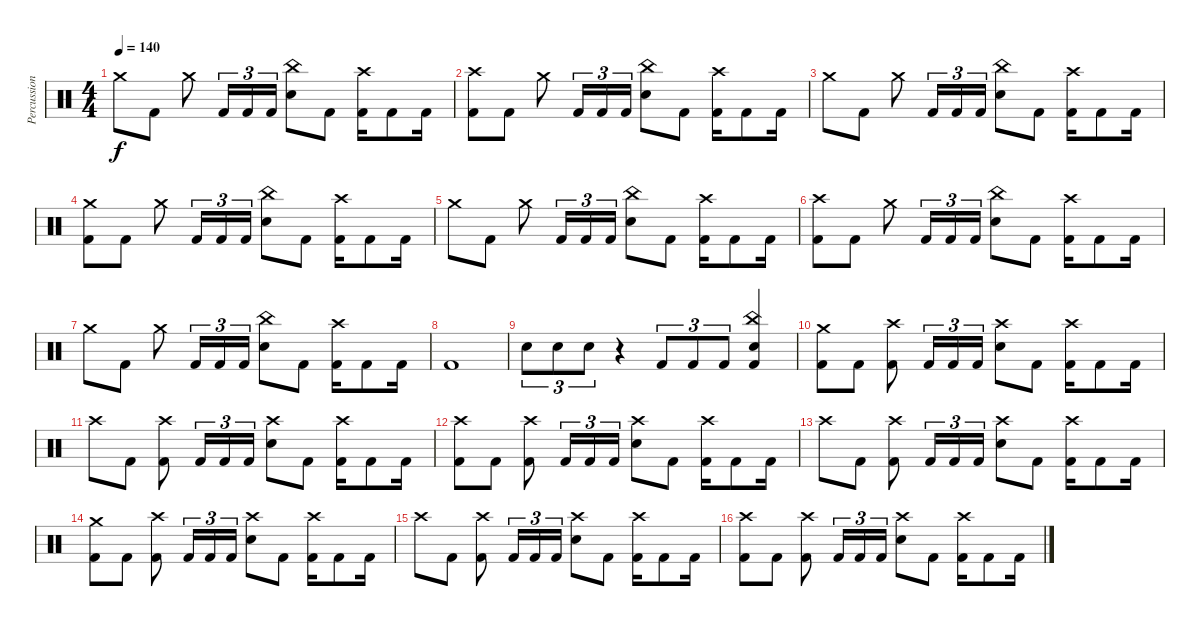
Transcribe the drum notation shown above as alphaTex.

\track ("Percussion" "Percussion") {instrument percussion}
\staff {score}
\articulation defaults
\ts (4 4)
\tempo 140
\clef neutral
\ks c "Crash medium (hit)".8{dy f} "Kick (hit) 2".8 "Crash medium (hit)".8 "Kick (hit) 2".16{tu (3 2)} "Kick (hit) 2".16{tu (3 2)} "Kick (hit) 2".16{tu (3 2)}
("China (hit)" "Electric Snare (hit)").8 "Kick (hit) 2".8 ("Crash high (hit)" "Kick (hit) 2").16 "Kick (hit) 2".8 "Kick (hit) 2".16 |
("Crash high (hit)" "Kick (hit) 2").8 "Kick (hit) 2".8 "Crash medium (hit)".8 "Kick (hit) 2".16{tu (3 2)} "Kick (hit) 2".16{tu (3 2)} "Kick (hit) 2".16{tu (3 2)} ("China (hit)" "Electric Snare (hit)").8 "Kick (hit) 2".8 ("Crash high (hit)" "Kick (hit) 2").16 "Kick (hit) 2".8 "Kick (hit) 2".16 |
"Crash medium (hit)".8 "Kick (hit) 2".8 "Crash medium (hit)".8 "Kick (hit) 2".16{tu (3 2)} "Kick (hit) 2".16{tu (3 2)} "Kick (hit) 2".16{tu (3 2)} ("China (hit)" "Electric Snare (hit)").8 "Kick (hit) 2".8 ("Crash high (hit)" "Kick (hit) 2").16 "Kick (hit) 2".8 "Kick (hit) 2".16 |
("Crash medium (hit)" "Kick (hit) 2").8 "Kick (hit) 2".8 "Crash medium (hit)".8 "Kick (hit) 2".16{tu (3 2)} "Kick (hit) 2".16{tu (3 2)} "Kick (hit) 2".16{tu (3 2)} ("China (hit)" "Electric Snare (hit)").8 "Kick (hit) 2".8 ("Crash high (hit)" "Kick (hit) 2").16 "Kick (hit) 2".8 "Kick (hit) 2".16 |
"Crash medium (hit)".8 "Kick (hit) 2".8 "Crash medium (hit)".8 "Kick (hit) 2".16{tu (3 2)} "Kick (hit) 2".16{tu (3 2)} "Kick (hit) 2".16{tu (3 2)} ("China (hit)" "Electric Snare (hit)").8 "Kick (hit) 2".8 ("Crash high (hit)" "Kick (hit) 2").16 "Kick (hit) 2".8 "Kick (hit) 2".16 |
("Crash high (hit)" "Kick (hit) 2").8 "Kick (hit) 2".8 "Crash medium (hit)".8 "Kick (hit) 2".16{tu (3 2)} "Kick (hit) 2".16{tu (3 2)} "Kick (hit) 2".16{tu (3 2)} ("China (hit)" "Electric Snare (hit)").8 "Kick (hit) 2".8 ("Crash high (hit)" "Kick (hit) 2").16 "Kick (hit) 2".8 "Kick (hit) 2".16 |
"Crash medium (hit)".8 "Kick (hit) 2".8 "Crash medium (hit)".8 "Kick (hit) 2".16{tu (3 2)} "Kick (hit) 2".16{tu (3 2)} "Kick (hit) 2".16{tu (3 2)} ("China (hit)" "Electric Snare (hit)").8 "Kick (hit) 2".8 ("Crash high (hit)" "Kick (hit) 2").16 "Kick (hit) 2".8 "Kick (hit) 2".16 |
"Kick (hit) 2".1 |
"Electric Snare (hit)".8{tu (3 2)} "Electric Snare (hit)".8{tu (3 2)} "Electric Snare (hit)".8{tu (3 2)} r.4 "Kick (hit) 2".8{tu (3 2)} "Kick (hit) 2".8{tu (3 2)} "Kick (hit) 2".8{tu (3 2)} ("China (hit)" "Electric Snare (hit)" "Kick (hit) 2").4 |
("Crash medium (hit)" "Kick (hit) 2").8 "Kick (hit) 2".8 ("Crash high (hit)" "Kick (hit) 2").8 "Kick (hit) 2".16{tu (3 2)} "Kick (hit) 2".16{tu (3 2)} "Kick (hit) 2".16{tu (3 2)} ("Crash high (hit)" "Electric Snare (hit)").8 "Kick (hit) 2".8 ("Crash high (hit)" "Kick (hit) 2").16 "Kick (hit) 2".8 "Kick (hit) 2".16 |
"Crash high (hit)".8 "Kick (hit) 2".8 ("Crash high (hit)" "Kick (hit) 2").8 "Kick (hit) 2".16{tu (3 2)} "Kick (hit) 2".16{tu (3 2)} "Kick (hit) 2".16{tu (3 2)} ("Crash high (hit)" "Electric Snare (hit)").8 "Kick (hit) 2".8 ("Crash high (hit)" "Kick (hit) 2").16 "Kick (hit) 2".8 "Kick (hit) 2".16 |
("Crash high (hit)" "Kick (hit) 2").8 "Kick (hit) 2".8 ("Crash high (hit)" "Kick (hit) 2").8 "Kick (hit) 2".16{tu (3 2)} "Kick (hit) 2".16{tu (3 2)} "Kick (hit) 2".16{tu (3 2)} ("Crash high (hit)" "Electric Snare (hit)").8 "Kick (hit) 2".8 ("Crash high (hit)" "Kick (hit) 2").16 "Kick (hit) 2".8 "Kick (hit) 2".16 |
"Crash high (hit)".8 "Kick (hit) 2".8 ("Crash high (hit)" "Kick (hit) 2").8 "Kick (hit) 2".16{tu (3 2)} "Kick (hit) 2".16{tu (3 2)} "Kick (hit) 2".16{tu (3 2)} ("Crash high (hit)" "Electric Snare (hit)").8 "Kick (hit) 2".8 ("Crash high (hit)" "Kick (hit) 2").16 "Kick (hit) 2".8 "Kick (hit) 2".16 |
("Crash medium (hit)" "Kick (hit) 2").8 "Kick (hit) 2".8 ("Crash high (hit)" "Kick (hit) 2").8 "Kick (hit) 2".16{tu (3 2)} "Kick (hit) 2".16{tu (3 2)} "Kick (hit) 2".16{tu (3 2)} ("Crash high (hit)" "Electric Snare (hit)").8 "Kick (hit) 2".8 ("Crash high (hit)" "Kick (hit) 2").16 "Kick (hit) 2".8 "Kick (hit) 2".16 |
"Crash high (hit)".8 "Kick (hit) 2".8 ("Crash high (hit)" "Kick (hit) 2").8 "Kick (hit) 2".16{tu (3 2)} "Kick (hit) 2".16{tu (3 2)} "Kick (hit) 2".16{tu (3 2)} ("Crash high (hit)" "Electric Snare (hit)").8 "Kick (hit) 2".8 ("Crash high (hit)" "Kick (hit) 2").16 "Kick (hit) 2".8 "Kick (hit) 2".16 |
("Crash high (hit)" "Kick (hit) 2").8 "Kick (hit) 2".8 ("Crash high (hit)" "Kick (hit) 2").8 "Kick (hit) 2".16{tu (3 2)} "Kick (hit) 2".16{tu (3 2)} "Kick (hit) 2".16{tu (3 2)} ("Crash high (hit)" "Electric Snare (hit)").8 "Kick (hit) 2".8 ("Crash high (hit)" "Kick (hit) 2").16 "Kick (hit) 2".8 "Kick (hit) 2".16
